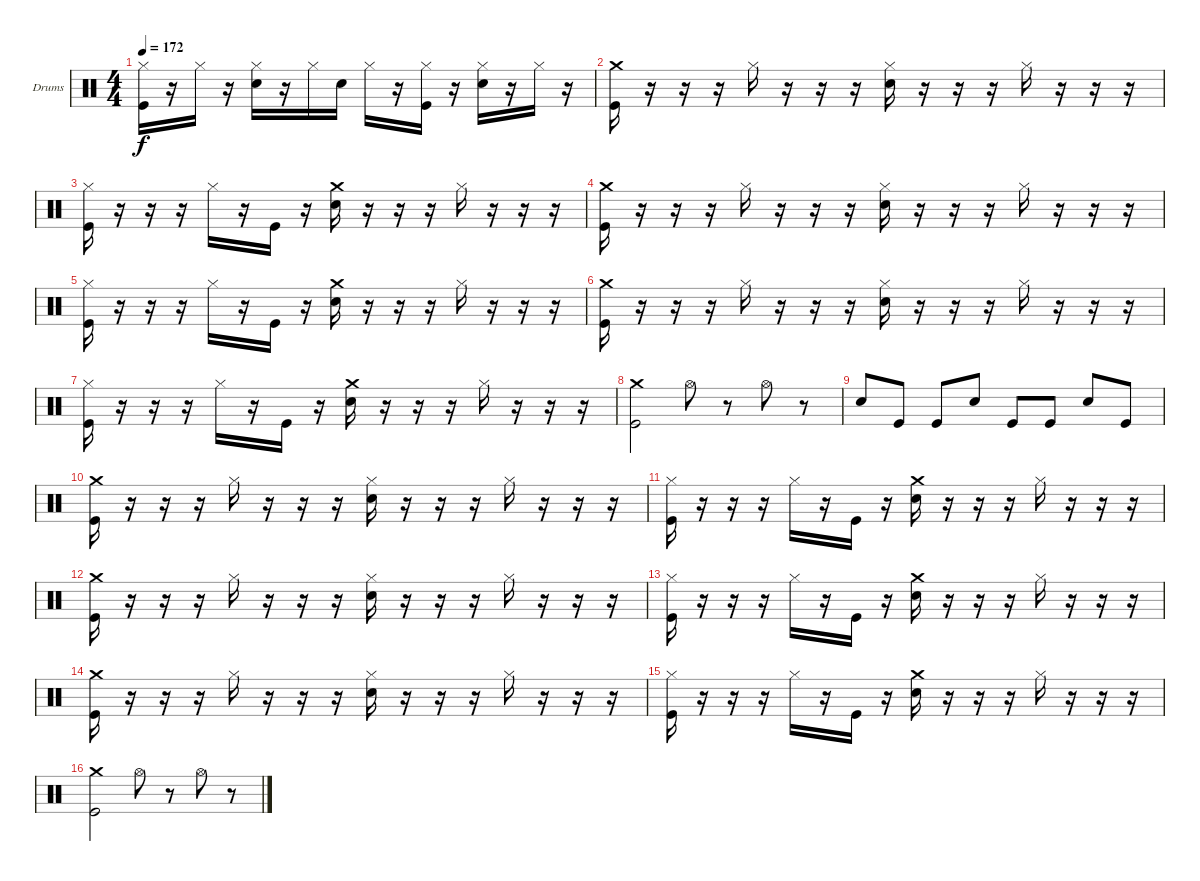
\bracketExtendMode groupsimilarinstruments
\firstSystemTrackNameOrientation horizontal
\otherSystemsTrackNameOrientation horizontal
\track ("Drumkit" "Drums") {instrument percussion}
\staff {score}
\articulation defaults
\ts (4 4)
\tempo 172
\clef neutral
\ks c
("Kick (hit)" "Hi-Hat (closed)").16{dy f} r.16 "Hi-Hat (closed)".16 r.16 ("Snare (hit) 2" "Hi-Hat (closed)").16 r.16 "Hi-Hat (closed)".16 "Snare (hit) 2".16 "Hi-Hat (closed)".16 r.16 ("Kick (hit)" "Hi-Hat (closed)").16 r.16 ("Snare (hit) 2" "Hi-Hat (closed)").16 r.16 "Hi-Hat (closed)".16 r.16 |
("Kick (hit)" "Crash medium (hit)").16 r.16 r.16 r.16 "Hi-Hat (closed)".16 r.16 r.16 r.16 ("Snare (hit) 2" "Hi-Hat (closed)").16 r.16 r.16 r.16 "Hi-Hat (closed)".16 r.16 r.16 r.16 |
("Kick (hit)" "Hi-Hat (closed)").16 r.16 r.16 r.16 "Hi-Hat (closed)".16 r.16 "Kick (hit)".16 r.16 ("Snare (hit) 2" "Crash medium (hit)").16 r.16 r.16 r.16 "Hi-Hat (closed)".16 r.16 r.16 r.16 |
("Kick (hit)" "Crash medium (hit)").16 r.16 r.16 r.16 "Hi-Hat (closed)".16 r.16 r.16 r.16 ("Snare (hit) 2" "Hi-Hat (closed)").16 r.16 r.16 r.16 "Hi-Hat (closed)".16 r.16 r.16 r.16 |
("Kick (hit)" "Hi-Hat (closed)").16 r.16 r.16 r.16 "Hi-Hat (closed)".16 r.16 "Kick (hit)".16 r.16 ("Snare (hit) 2" "Crash medium (hit)").16 r.16 r.16 r.16 "Hi-Hat (closed)".16 r.16 r.16 r.16 |
("Kick (hit)" "Crash medium (hit)").16 r.16 r.16 r.16 "Hi-Hat (closed)".16 r.16 r.16 r.16 ("Snare (hit) 2" "Hi-Hat (closed)").16 r.16 r.16 r.16 "Hi-Hat (closed)".16 r.16 r.16 r.16 |
("Kick (hit)" "Hi-Hat (closed)").16 r.16 r.16 r.16 "Hi-Hat (closed)".16 r.16 "Kick (hit)".16 r.16 ("Snare (hit) 2" "Crash medium (hit)").16 r.16 r.16 r.16 "Hi-Hat (closed)".16 r.16 r.16 r.16 |
("Kick (hit)" "Crash medium (hit)").2 "Hi-Hat (open)".8 r.8 "Hi-Hat (open)".8 r.8 |
"Snare (hit) 2".8 "Kick (hit)".8 "Kick (hit)".8 "Snare (hit) 2".8 "Kick (hit)".8 "Kick (hit)".8 "Snare (hit) 2".8 "Kick (hit)".8 |
("Kick (hit)" "Crash medium (hit)").16 r.16 r.16 r.16 "Hi-Hat (closed)".16 r.16 r.16 r.16 ("Snare (hit) 2" "Hi-Hat (closed)").16 r.16 r.16 r.16 "Hi-Hat (closed)".16 r.16 r.16 r.16 |
("Kick (hit)" "Hi-Hat (closed)").16 r.16 r.16 r.16 "Hi-Hat (closed)".16 r.16 "Kick (hit)".16 r.16 ("Snare (hit) 2" "Crash medium (hit)").16 r.16 r.16 r.16 "Hi-Hat (closed)".16 r.16 r.16 r.16 |
("Kick (hit)" "Crash medium (hit)").16 r.16 r.16 r.16 "Hi-Hat (closed)".16 r.16 r.16 r.16 ("Snare (hit) 2" "Hi-Hat (closed)").16 r.16 r.16 r.16 "Hi-Hat (closed)".16 r.16 r.16 r.16 |
("Kick (hit)" "Hi-Hat (closed)").16 r.16 r.16 r.16 "Hi-Hat (closed)".16 r.16 "Kick (hit)".16 r.16 ("Snare (hit) 2" "Crash medium (hit)").16 r.16 r.16 r.16 "Hi-Hat (closed)".16 r.16 r.16 r.16 |
("Kick (hit)" "Crash medium (hit)").16 r.16 r.16 r.16 "Hi-Hat (closed)".16 r.16 r.16 r.16 ("Snare (hit) 2" "Hi-Hat (closed)").16 r.16 r.16 r.16 "Hi-Hat (closed)".16 r.16 r.16 r.16 |
("Kick (hit)" "Hi-Hat (closed)").16 r.16 r.16 r.16 "Hi-Hat (closed)".16 r.16 "Kick (hit)".16 r.16 ("Snare (hit) 2" "Crash medium (hit)").16 r.16 r.16 r.16 "Hi-Hat (closed)".16 r.16 r.16 r.16 |
("Kick (hit)" "Crash medium (hit)").2 "Hi-Hat (open)".8 r.8 "Hi-Hat (open)".8 r.8
